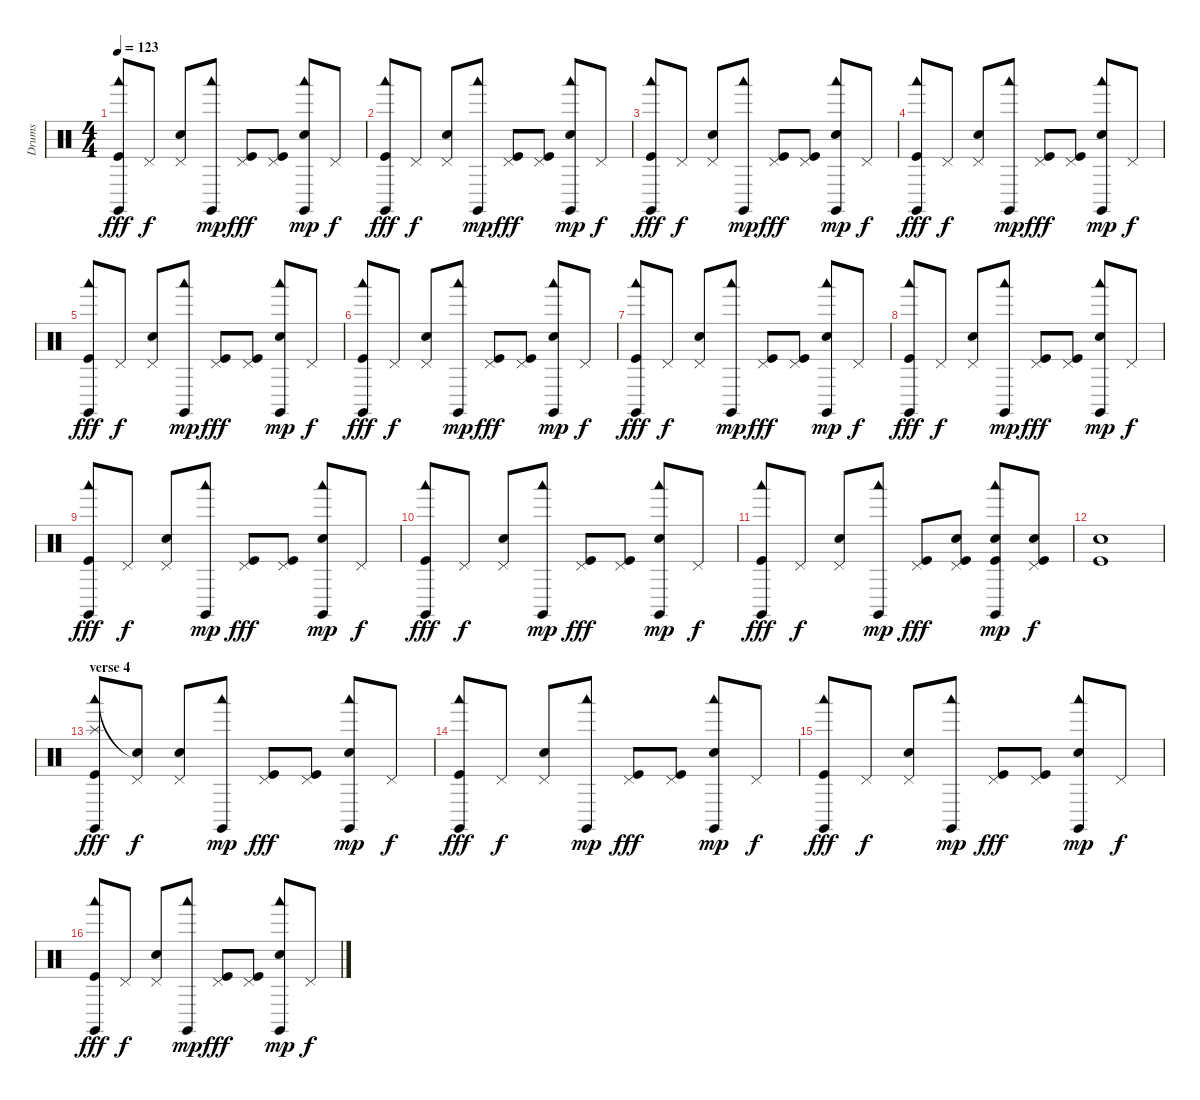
\track ("Drums" "Drums") {instrument percussion}
\staff {score}
\articulation defaults
\ts (4 4)
\tempo 123
\clef neutral
\ks c
("Claves (hit)" "Woodblock low (hit)" "Kick (hit)").8{dy fff} "Pedal Hi-Hat (hit)".8{dy f} ("Pedal Hi-Hat (hit)" "Electric Snare (hit)").8 ("Claves (hit)" "Woodblock low (hit)").8{dy mp} ("Pedal Hi-Hat (hit)" "Kick (hit)").8{dy fff} ("Pedal Hi-Hat (hit)" "Kick (hit)").8 ("Claves (hit)" "Woodblock low (hit)" "Electric Snare (hit)").8{dy mp} "Pedal Hi-Hat (hit)".8{dy f} |
("Claves (hit)" "Woodblock low (hit)" "Kick (hit)").8{dy fff} "Pedal Hi-Hat (hit)".8{dy f} ("Pedal Hi-Hat (hit)" "Electric Snare (hit)").8 ("Claves (hit)" "Woodblock low (hit)").8{dy mp} ("Pedal Hi-Hat (hit)" "Kick (hit)").8{dy fff} ("Pedal Hi-Hat (hit)" "Kick (hit)").8 ("Claves (hit)" "Woodblock low (hit)" "Electric Snare (hit)").8{dy mp} "Pedal Hi-Hat (hit)".8{dy f} |
("Claves (hit)" "Woodblock low (hit)" "Kick (hit)").8{dy fff} "Pedal Hi-Hat (hit)".8{dy f} ("Pedal Hi-Hat (hit)" "Electric Snare (hit)").8 ("Claves (hit)" "Woodblock low (hit)").8{dy mp} ("Pedal Hi-Hat (hit)" "Kick (hit)").8{dy fff} ("Pedal Hi-Hat (hit)" "Kick (hit)").8 ("Claves (hit)" "Woodblock low (hit)" "Electric Snare (hit)").8{dy mp} "Pedal Hi-Hat (hit)".8{dy f} |
("Claves (hit)" "Woodblock low (hit)" "Kick (hit)").8{dy fff} "Pedal Hi-Hat (hit)".8{dy f} ("Pedal Hi-Hat (hit)" "Electric Snare (hit)").8 ("Claves (hit)" "Woodblock low (hit)").8{dy mp} ("Pedal Hi-Hat (hit)" "Kick (hit)").8{dy fff} ("Pedal Hi-Hat (hit)" "Kick (hit)").8 ("Claves (hit)" "Woodblock low (hit)" "Electric Snare (hit)").8{dy mp} "Pedal Hi-Hat (hit)".8{dy f} |
("Claves (hit)" "Woodblock low (hit)" "Kick (hit)").8{dy fff} "Pedal Hi-Hat (hit)".8{dy f} ("Pedal Hi-Hat (hit)" "Electric Snare (hit)").8 ("Claves (hit)" "Woodblock low (hit)").8{dy mp} ("Pedal Hi-Hat (hit)" "Kick (hit)").8{dy fff} ("Pedal Hi-Hat (hit)" "Kick (hit)").8 ("Claves (hit)" "Woodblock low (hit)" "Electric Snare (hit)").8{dy mp} "Pedal Hi-Hat (hit)".8{dy f} |
("Claves (hit)" "Woodblock low (hit)" "Kick (hit)").8{dy fff} "Pedal Hi-Hat (hit)".8{dy f} ("Pedal Hi-Hat (hit)" "Electric Snare (hit)").8 ("Claves (hit)" "Woodblock low (hit)").8{dy mp} ("Pedal Hi-Hat (hit)" "Kick (hit)").8{dy fff} ("Pedal Hi-Hat (hit)" "Kick (hit)").8 ("Claves (hit)" "Woodblock low (hit)" "Electric Snare (hit)").8{dy mp} "Pedal Hi-Hat (hit)".8{dy f} |
("Claves (hit)" "Woodblock low (hit)" "Kick (hit)").8{dy fff} "Pedal Hi-Hat (hit)".8{dy f} ("Pedal Hi-Hat (hit)" "Electric Snare (hit)").8 ("Claves (hit)" "Woodblock low (hit)").8{dy mp} ("Pedal Hi-Hat (hit)" "Kick (hit)").8{dy fff} ("Pedal Hi-Hat (hit)" "Kick (hit)").8 ("Claves (hit)" "Woodblock low (hit)" "Electric Snare (hit)").8{dy mp} "Pedal Hi-Hat (hit)".8{dy f} |
("Claves (hit)" "Woodblock low (hit)" "Kick (hit)").8{dy fff} "Pedal Hi-Hat (hit)".8{dy f} ("Pedal Hi-Hat (hit)" "Electric Snare (hit)").8 ("Claves (hit)" "Woodblock low (hit)").8{dy mp} ("Pedal Hi-Hat (hit)" "Kick (hit)").8{dy fff} ("Pedal Hi-Hat (hit)" "Kick (hit)").8 ("Claves (hit)" "Woodblock low (hit)" "Electric Snare (hit)").8{dy mp} "Pedal Hi-Hat (hit)".8{dy f} |
("Claves (hit)" "Woodblock low (hit)" "Kick (hit)").8{dy fff} "Pedal Hi-Hat (hit)".8{dy f} ("Pedal Hi-Hat (hit)" "Electric Snare (hit)").8 ("Claves (hit)" "Woodblock low (hit)").8{dy mp} ("Pedal Hi-Hat (hit)" "Kick (hit)").8{dy fff} ("Pedal Hi-Hat (hit)" "Kick (hit)").8 ("Claves (hit)" "Woodblock low (hit)" "Electric Snare (hit)").8{dy mp} "Pedal Hi-Hat (hit)".8{dy f} |
("Claves (hit)" "Woodblock low (hit)" "Kick (hit)").8{dy fff} "Pedal Hi-Hat (hit)".8{dy f} ("Pedal Hi-Hat (hit)" "Electric Snare (hit)").8 ("Claves (hit)" "Woodblock low (hit)").8{dy mp} ("Pedal Hi-Hat (hit)" "Kick (hit)").8{dy fff} ("Pedal Hi-Hat (hit)" "Kick (hit)").8 ("Claves (hit)" "Woodblock low (hit)" "Electric Snare (hit)").8{dy mp} "Pedal Hi-Hat (hit)".8{dy f} |
("Claves (hit)" "Woodblock low (hit)" "Kick (hit)").8{dy fff} "Pedal Hi-Hat (hit)".8{dy f} ("Pedal Hi-Hat (hit)" "Electric Snare (hit)").8 ("Claves (hit)" "Woodblock low (hit)").8{dy mp} ("Pedal Hi-Hat (hit)" "Kick (hit)").8{dy fff} ("Pedal Hi-Hat (hit)" "Electric Snare (hit)" "Kick (hit)").8 ("Claves (hit)" "Woodblock low (hit)" "Electric Snare (hit)" "Kick (hit)").8{dy mp} ("Pedal Hi-Hat (hit)" "Electric Snare (hit)" "Kick (hit)").8{dy f} |
("Electric Snare (hit)" "Kick (hit)").1 |
\section ("" "verse 4")
("Claves (hit)" "Woodblock low (hit)" "Splash (hit)" "Kick (hit)").8{dy fff} ("Pedal Hi-Hat (hit)" "Snare (hit)"{t}).8{dy f} ("Pedal Hi-Hat (hit)" "Electric Snare (hit)").8 ("Claves (hit)" "Woodblock low (hit)").8{dy mp} ("Pedal Hi-Hat (hit)" "Kick (hit)").8{dy fff} ("Pedal Hi-Hat (hit)" "Kick (hit)").8 ("Claves (hit)" "Woodblock low (hit)" "Electric Snare (hit)").8{dy mp} "Pedal Hi-Hat (hit)".8{dy f} |
("Claves (hit)" "Woodblock low (hit)" "Kick (hit)").8{dy fff} "Pedal Hi-Hat (hit)".8{dy f} ("Pedal Hi-Hat (hit)" "Electric Snare (hit)").8 ("Claves (hit)" "Woodblock low (hit)").8{dy mp} ("Pedal Hi-Hat (hit)" "Kick (hit)").8{dy fff} ("Pedal Hi-Hat (hit)" "Kick (hit)").8 ("Claves (hit)" "Woodblock low (hit)" "Electric Snare (hit)").8{dy mp} "Pedal Hi-Hat (hit)".8{dy f} |
("Claves (hit)" "Woodblock low (hit)" "Kick (hit)").8{dy fff} "Pedal Hi-Hat (hit)".8{dy f} ("Pedal Hi-Hat (hit)" "Electric Snare (hit)").8 ("Claves (hit)" "Woodblock low (hit)").8{dy mp} ("Pedal Hi-Hat (hit)" "Kick (hit)").8{dy fff} ("Pedal Hi-Hat (hit)" "Kick (hit)").8 ("Claves (hit)" "Woodblock low (hit)" "Electric Snare (hit)").8{dy mp} "Pedal Hi-Hat (hit)".8{dy f} |
("Claves (hit)" "Woodblock low (hit)" "Kick (hit)").8{dy fff} "Pedal Hi-Hat (hit)".8{dy f} ("Pedal Hi-Hat (hit)" "Electric Snare (hit)").8 ("Claves (hit)" "Woodblock low (hit)").8{dy mp} ("Pedal Hi-Hat (hit)" "Kick (hit)").8{dy fff} ("Pedal Hi-Hat (hit)" "Kick (hit)").8 ("Claves (hit)" "Woodblock low (hit)" "Electric Snare (hit)").8{dy mp} "Pedal Hi-Hat (hit)".8{dy f}
